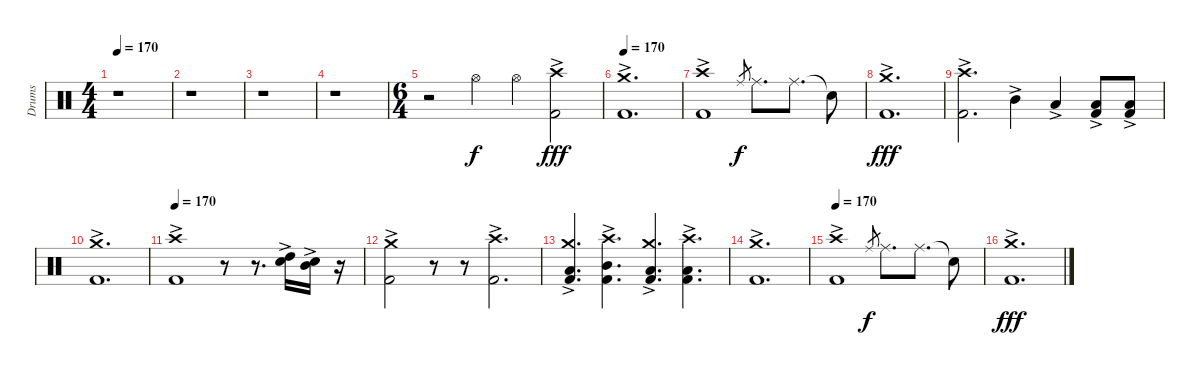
\track ("Drums" "Drums") {instrument percussion}
\staff {score}
\articulation defaults
\ts (4 4)
\tempo 170
\clef neutral
\ks c
r.1{dy fff} |
r.1 |
r.1 |
r.1 |
\ts (6 4)
r.2 "Hi-Hat (open)".4{dy f} "Hi-Hat (open)".4 ("Crash high (hit)"{ac} "Kick (hit) 2"{ac}).2{dy fff} |
\tempo 170
("Crash medium (hit)"{ac} "Kick (hit) 2"{ac}).1{d} |
("Crash high (hit)"{ac} "Kick (hit) 2"{ac}).1 "Ride (middle)".8{gr dy f} "Ride (middle)".8{d} "Ride (middle)".8{d} "Snare (hit)"{t}.8 |
("Crash medium (hit)"{ac} "Kick (hit) 2"{ac}).1{d dy fff} |
("Crash high (hit)"{ac} "Kick (hit) 2"{ac}).2{d} "Mid Tom (hit)"{ac}.4 "Low Tom (hit)"{ac}.4 ("Low Floor Tom (hit)"{ac} "Kick (hit) 2"{ac}).8 ("Low Floor Tom (hit)" "Kick (hit) 2"{ac}).8 |
("Crash medium (hit)"{ac} "Kick (hit) 2"{ac}).1{d} |
\tempo 170
("Crash high (hit)"{ac} "Kick (hit) 2"{ac}).1 r.8 r.8{d} ("High Tom (hit)"{ac} "Snare (hit) 2"{ac}).16 ("Mid Tom (hit)"{ac} "Snare (hit) 2"{ac}).16 r.16 |
("Crash medium (hit)"{ac} "Kick (hit) 2").2 r.8 r.8 ("Crash high (hit)"{ac} "Kick (hit) 2").2{d} |
("Crash medium (hit)"{ac} "Low Tom (hit)" "Kick (hit) 2").4{d} ("Crash high (hit)"{ac} "Mid Tom (hit)" "Kick (hit) 2").4{d} ("Crash medium (hit)"{ac} "Low Tom (hit)" "Kick (hit) 2").4{d} ("Crash high (hit)"{ac} "Low Floor Tom (hit)" "Kick (hit) 2").4{d} |
("Crash medium (hit)"{ac} "Kick (hit) 2").1{d} |
\tempo 170
("Crash high (hit)"{ac} "Kick (hit) 2"{ac}).1 "Ride (middle)".8{gr dy f} "Ride (middle)".8{d} "Ride (middle)".8{d} "Snare (hit)"{t}.8 |
("Crash medium (hit)"{ac} "Kick (hit) 2"{ac}).1{d dy fff}
